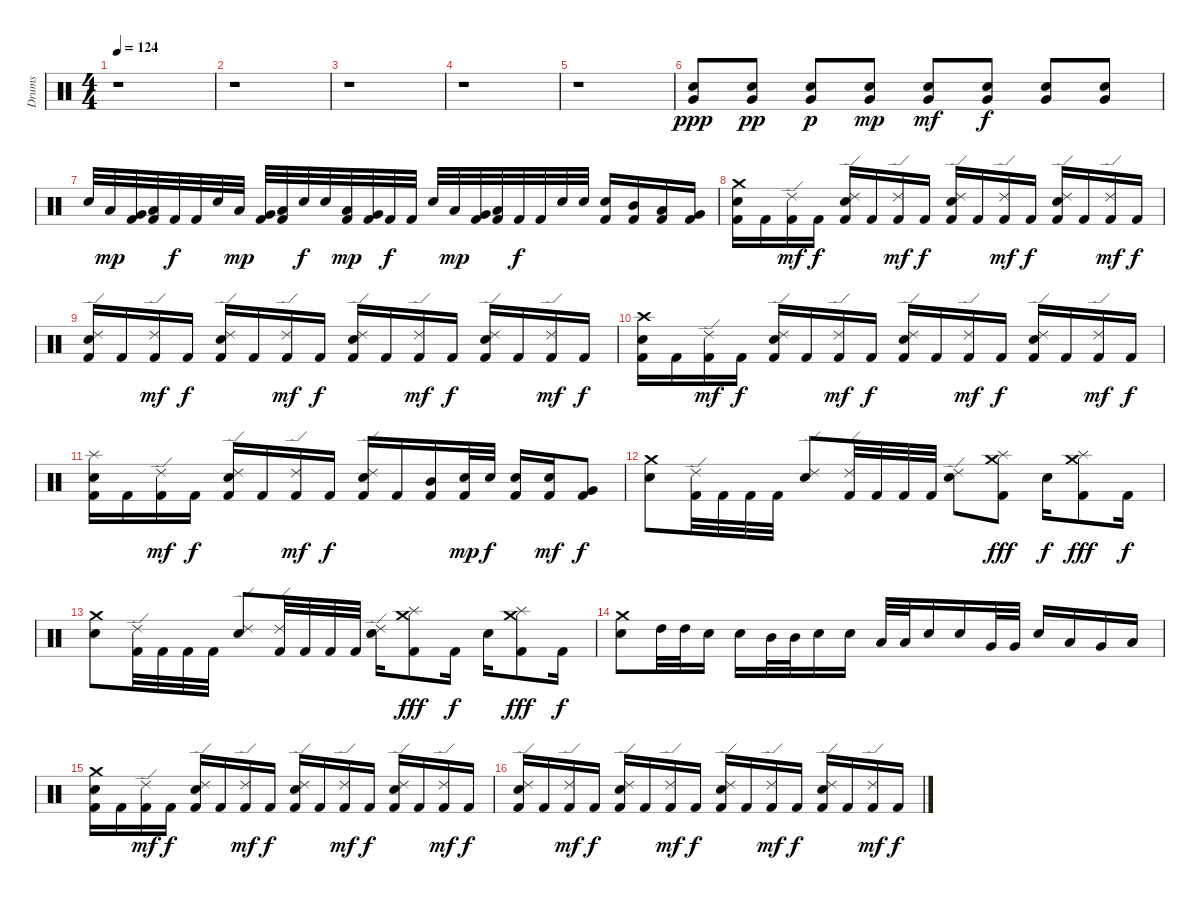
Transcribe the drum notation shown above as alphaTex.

\track ("Drums" "Drums") {instrument percussion}
\staff {score}
\articulation defaults
\ts (4 4)
\tempo 124
\clef neutral
\ks c
r.1{dy f} |
r.1 |
r.1 |
r.1 |
r.1 |
("Very Low Tom (hit)" "Electric Snare (hit)").8{dy ppp} ("Very Low Tom (hit)" "Electric Snare (hit)").8{dy pp} ("Very Low Tom (hit)" "Electric Snare (hit)").8{dy p} ("Very Low Tom (hit)" "Electric Snare (hit)").8{dy mp} ("Very Low Tom (hit)" "Electric Snare (hit)").8{dy mf} ("Very Low Tom (hit)" "Electric Snare (hit)").8{dy f} ("Very Low Tom (hit)" "Electric Snare (hit)").8 ("Very Low Tom (hit)" "Electric Snare (hit)").8 |
"Electric Snare (hit)".32 "Low Tom (hit)".32{dy mp} ("Very Low Tom (hit)" "Kick (hit) 2").32 ("Low Floor Tom (hit)" "Kick (hit) 2").32 "Kick (hit) 2".32{dy f} "Kick (hit) 2".32 "Electric Snare (hit)".32 "Low Tom (hit)".32{dy mp} ("Very Low Tom (hit)" "Kick (hit) 2").32 ("Low Floor Tom (hit)" "Kick (hit) 2").32 "Electric Snare (hit)".32{dy f} "Electric Snare (hit)".32 ("Low Tom (hit)" "Kick (hit) 2").32{dy mp} ("Very Low Tom (hit)" "Kick (hit) 2").32 "Kick (hit) 2".32{dy f} "Kick (hit) 2".32 "Electric Snare (hit)".32 "Low Tom (hit)".32{dy mp} ("Very Low Tom (hit)" "Kick (hit) 2").32 ("Low Floor Tom (hit)" "Kick (hit) 2").32 "Kick (hit) 2".32{dy f} "Kick (hit) 2".32 "Electric Snare (hit)".32 "Electric Snare (hit)".32 ("Electric Snare (hit)" "Kick (hit) 2").16 ("Mid Tom (hit)" "Kick (hit) 2").16 ("Low Tom (hit)" "Kick (hit) 2").16 ("Very Low Tom (hit)" "Kick (hit) 2").16 |
("Crash medium (hit)" "Electric Snare (hit)" "Kick (hit) 2").16 "Kick (hit) 2".16 ("Ride (edge) 2" "Kick (hit) 2").16{dy mf} "Kick (hit) 2".16{dy f} ("Ride (edge) 2" "Electric Snare (hit)" "Kick (hit) 2").16 "Kick (hit) 2".16 ("Ride (edge) 2" "Kick (hit) 2").16{dy mf} "Kick (hit) 2".16{dy f} ("Ride (edge) 2" "Electric Snare (hit)" "Kick (hit) 2").16 "Kick (hit) 2".16 ("Ride (edge) 2" "Kick (hit) 2").16{dy mf} "Kick (hit) 2".16{dy f} ("Ride (edge) 2" "Electric Snare (hit)" "Kick (hit) 2").16 "Kick (hit) 2".16 ("Ride (edge) 2" "Kick (hit) 2").16{dy mf} "Kick (hit) 2".16{dy f} |
("Ride (edge) 2" "Electric Snare (hit)" "Kick (hit) 2").16 "Kick (hit) 2".16 ("Ride (edge) 2" "Kick (hit) 2").16{dy mf} "Kick (hit) 2".16{dy f} ("Ride (edge) 2" "Electric Snare (hit)" "Kick (hit) 2").16 "Kick (hit) 2".16 ("Ride (edge) 2" "Kick (hit) 2").16{dy mf} "Kick (hit) 2".16{dy f} ("Ride (edge) 2" "Electric Snare (hit)" "Kick (hit) 2").16 "Kick (hit) 2".16 ("Ride (edge) 2" "Kick (hit) 2").16{dy mf} "Kick (hit) 2".16{dy f} ("Ride (edge) 2" "Electric Snare (hit)" "Kick (hit) 2").16 "Kick (hit) 2".16 ("Ride (edge) 2" "Kick (hit) 2").16{dy mf} "Kick (hit) 2".16{dy f} |
("Crash high (hit)" "Electric Snare (hit)" "Kick (hit) 2").16 "Kick (hit) 2".16 ("Ride (edge) 2" "Kick (hit) 2").16{dy mf} "Kick (hit) 2".16{dy f} ("Ride (edge) 2" "Electric Snare (hit)" "Kick (hit) 2").16 "Kick (hit) 2".16 ("Ride (edge) 2" "Kick (hit) 2").16{dy mf} "Kick (hit) 2".16{dy f} ("Ride (edge) 2" "Electric Snare (hit)" "Kick (hit) 2").16 "Kick (hit) 2".16 ("Ride (edge) 2" "Kick (hit) 2").16{dy mf} "Kick (hit) 2".16{dy f} ("Ride (edge) 2" "Electric Snare (hit)" "Kick (hit) 2").16 "Kick (hit) 2".16 ("Ride (edge) 2" "Kick (hit) 2").16{dy mf} "Kick (hit) 2".16{dy f} |
("Splash (hit)" "Electric Snare (hit)" "Kick (hit) 2").16 "Kick (hit) 2".16 ("Ride (edge) 2" "Kick (hit) 2").16{dy mf} "Kick (hit) 2".16{dy f} ("Ride (edge) 2" "Electric Snare (hit)" "Kick (hit) 2").16 "Kick (hit) 2".16 ("Ride (edge) 2" "Kick (hit) 2").16{dy mf} "Kick (hit) 2".16{dy f} ("Ride (edge) 2" "Electric Snare (hit)" "Kick (hit) 2").16 "Kick (hit) 2".16 ("Mid Tom (hit)" "Kick (hit) 2").16 ("Electric Snare (hit)" "Kick (hit) 2").32{dy mp} "Electric Snare (hit)".32{dy f} ("Electric Snare (hit)" "Kick (hit) 2").16 ("Electric Snare (hit)" "Kick (hit) 2").16{dy mf} ("Very Low Tom (hit)" "Kick (hit) 2").8{dy f} |
("Crash medium (hit)" "Electric Snare (hit)").8 ("Ride (edge) 2" "Kick (hit) 2").32 "Kick (hit) 2".32 "Kick (hit) 2".32 "Kick (hit) 2".32 ("Ride (edge) 2" "Electric Snare (hit)").8 ("Ride (edge) 2" "Kick (hit) 2").32 "Kick (hit) 2".32 "Kick (hit) 2".32 "Kick (hit) 2".32 ("Ride (edge) 2" "Electric Snare (hit)").8 ("Crash medium (hit)" "Splash (hit)" "Kick (hit) 2").8{dy fff} "Electric Snare (hit)".16{dy f} ("Crash medium (hit)" "Splash (hit)" "Kick (hit) 2").8{dy fff} "Kick (hit) 2".16{dy f} |
("Crash medium (hit)" "Electric Snare (hit)").8 ("Ride (edge) 2" "Kick (hit) 2").32 "Kick (hit) 2".32 "Kick (hit) 2".32 "Kick (hit) 2".32 ("Ride (edge) 2" "Electric Snare (hit)").8 ("Ride (edge) 2" "Kick (hit) 2").32 "Kick (hit) 2".32 "Kick (hit) 2".32 "Kick (hit) 2".32 ("Ride (edge) 2" "Electric Snare (hit)").16 ("Crash medium (hit)" "Splash (hit)" "Kick (hit) 2").8{dy fff} "Kick (hit) 2".16{dy f} "Electric Snare (hit)".16 ("Crash medium (hit)" "Splash (hit)" "Kick (hit) 2").8{dy fff} "Kick (hit) 2".16{dy f} |
("Crash medium (hit)" "Electric Snare (hit)").8 "High Tom (hit)".32 "High Tom (hit)".32 "Electric Snare (hit)".16 "Electric Snare (hit)".16 "Mid Tom (hit)".32 "Mid Tom (hit)".32 "Electric Snare (hit)".16 "Electric Snare (hit)".16 "Low Tom (hit)".32 "Low Tom (hit)".32 "Electric Snare (hit)".16 "Electric Snare (hit)".16 "Very Low Tom (hit)".32 "Very Low Tom (hit)".32 "Electric Snare (hit)".16 "Low Tom (hit)".16 "Very Low Tom (hit)".16 "Low Floor Tom (hit)".16 |
("Crash medium (hit)" "Electric Snare (hit)" "Kick (hit) 2").16 "Kick (hit) 2".16 ("Ride (edge) 2" "Kick (hit) 2").16{dy mf} "Kick (hit) 2".16{dy f} ("Ride (edge) 2" "Electric Snare (hit)" "Kick (hit) 2").16 "Kick (hit) 2".16 ("Ride (edge) 2" "Kick (hit) 2").16{dy mf} "Kick (hit) 2".16{dy f} ("Ride (edge) 2" "Electric Snare (hit)" "Kick (hit) 2").16 "Kick (hit) 2".16 ("Ride (edge) 2" "Kick (hit) 2").16{dy mf} "Kick (hit) 2".16{dy f} ("Ride (edge) 2" "Electric Snare (hit)" "Kick (hit) 2").16 "Kick (hit) 2".16 ("Ride (edge) 2" "Kick (hit) 2").16{dy mf} "Kick (hit) 2".16{dy f} |
("Ride (edge) 2" "Electric Snare (hit)" "Kick (hit) 2").16 "Kick (hit) 2".16 ("Ride (edge) 2" "Kick (hit) 2").16{dy mf} "Kick (hit) 2".16{dy f} ("Ride (edge) 2" "Electric Snare (hit)" "Kick (hit) 2").16 "Kick (hit) 2".16 ("Ride (edge) 2" "Kick (hit) 2").16{dy mf} "Kick (hit) 2".16{dy f} ("Ride (edge) 2" "Electric Snare (hit)" "Kick (hit) 2").16 "Kick (hit) 2".16 ("Ride (edge) 2" "Kick (hit) 2").16{dy mf} "Kick (hit) 2".16{dy f} ("Ride (edge) 2" "Electric Snare (hit)" "Kick (hit) 2").16 "Kick (hit) 2".16 ("Ride (edge) 2" "Kick (hit) 2").16{dy mf} "Kick (hit) 2".16{dy f}
